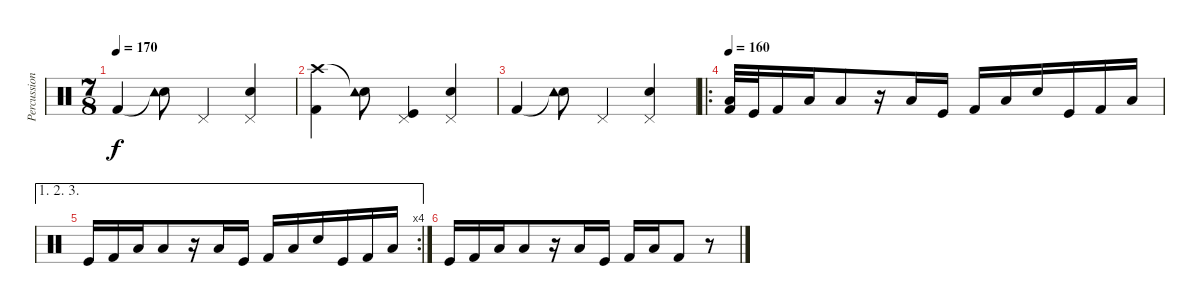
\track ("Percussion" "Percussion") {instrument percussion}
\staff {score}
\articulation defaults
\ts (7 8)
\tempo 170
\clef neutral
\ks c "Kick (hit) 2".4{dy f}
("Snare (hit)"{t} "Tambourine (hit)").8 "Pedal Hi-Hat (hit)".4 ("Pedal Hi-Hat (hit)" "Snare (hit) 2").4 |
("Crash high (hit)" "Kick (hit) 2").4 ("Snare (hit)"{t} "Tambourine (hit)").8 ("Pedal Hi-Hat (hit)" "Kick (hit)").4 ("Pedal Hi-Hat (hit)" "Snare (hit) 2").4 |
"Kick (hit) 2".4 ("Snare (hit)"{t} "Tambourine (hit)").8 "Pedal Hi-Hat (hit)".4 ("Pedal Hi-Hat (hit)" "Snare (hit) 2").4 |
\ro
\tempo 160
("Low Floor Tom (hit)" "Kick (hit) 2").32 "Kick (hit)".32 "Kick (hit) 2".16 "Low Floor Tom (hit)".16 "Low Floor Tom (hit)".8 r.16 "Low Floor Tom (hit)".16 "Kick (hit)".16 "Kick (hit) 2".16 "Low Floor Tom (hit)".16 "Snare (hit)".16 "Kick (hit)".16 "Kick (hit) 2".16 "Low Floor Tom (hit)".16 |
\ae (1 2 3)
\rc 4 "Kick (hit)".16 "Kick (hit) 2".16 "Low Floor Tom (hit)".16 "Low Floor Tom (hit)".8
r.16 "Low Floor Tom (hit)".16 "Kick (hit)".16 "Kick (hit) 2".16 "Low Floor Tom (hit)".16 "Snare (hit)".16 "Kick (hit)".16 "Kick (hit) 2".16 "Low Floor Tom (hit)".16 |
"Kick (hit)".16 "Kick (hit) 2".16 "Low Floor Tom (hit)".16 "Low Floor Tom (hit)".8 r.16 "Low Floor Tom (hit)".16 "Kick (hit)".16 "Kick (hit) 2".16 "Low Floor Tom (hit)".16 "Kick (hit) 2".8 r.8
